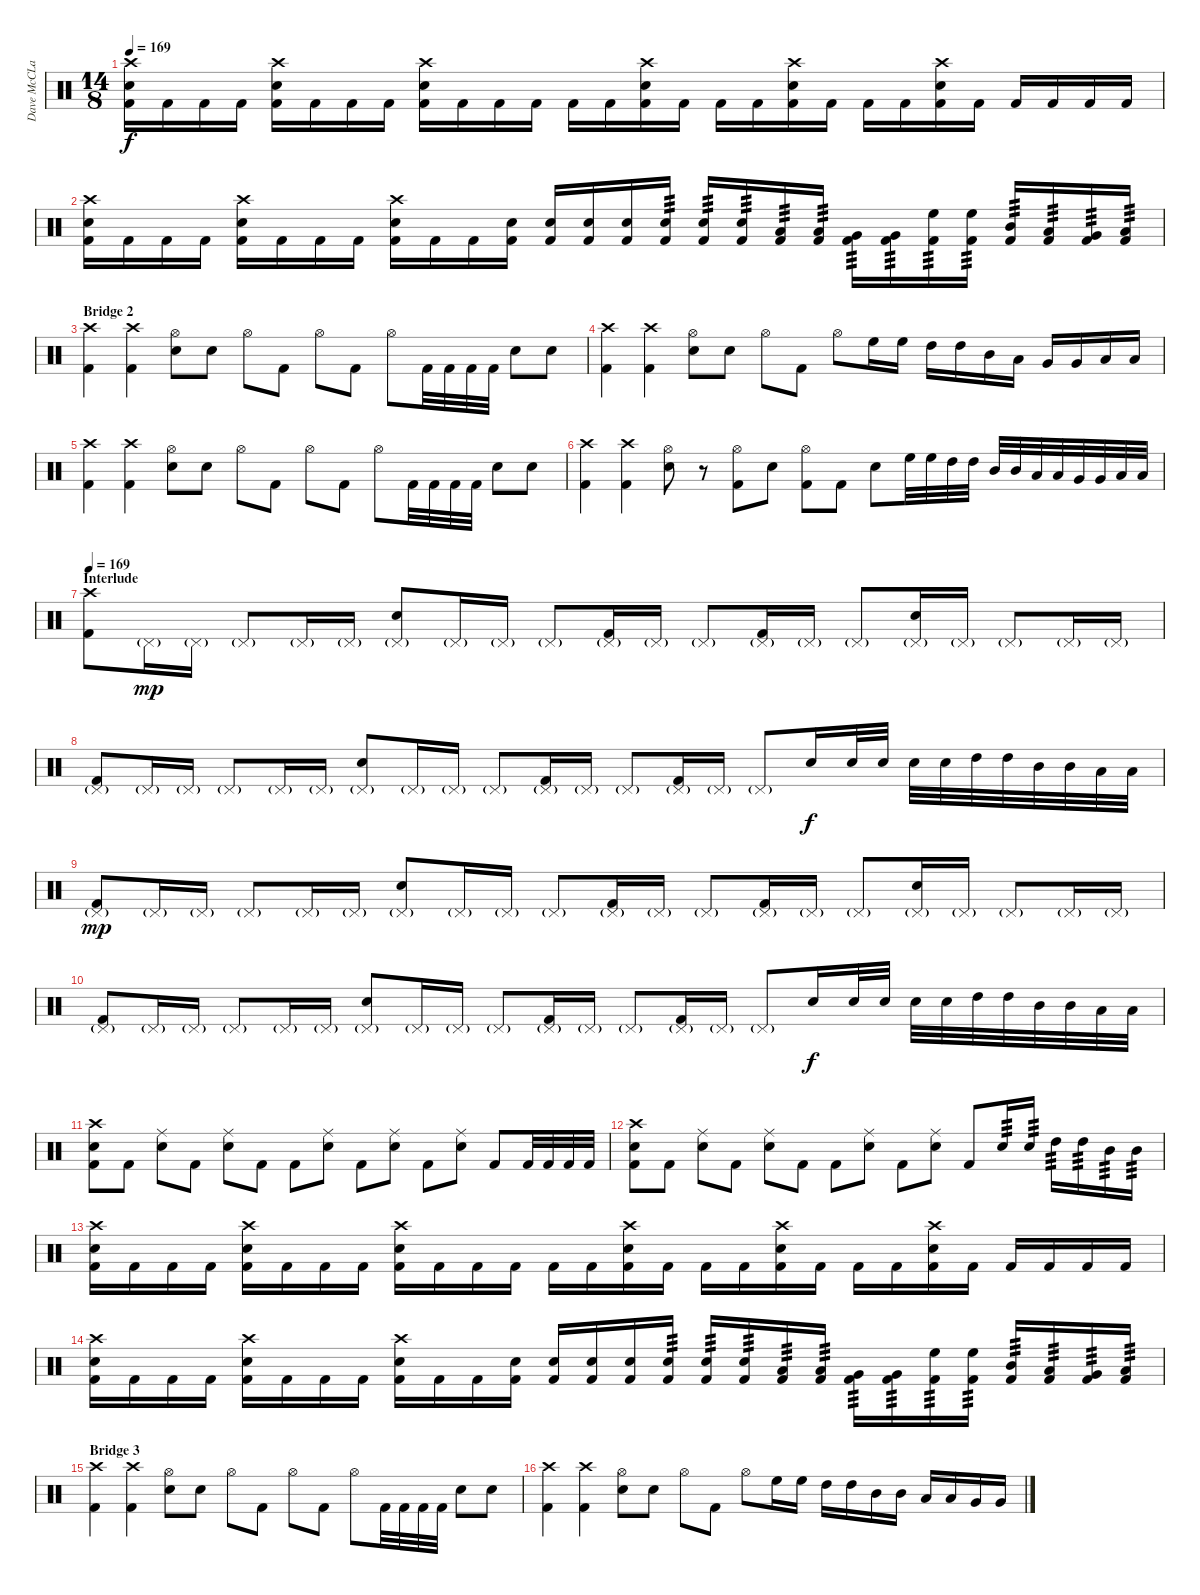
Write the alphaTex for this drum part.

\track ("Dave McCLain" "Dave McCLa") {instrument percussion}
\staff {score}
\articulation defaults
\ts (14 8)
\tempo 169
\clef neutral
\ks c
("Crash high (hit)" "Electric Snare (hit)" "Kick (hit) 2").16{dy f} "Kick (hit) 2".16 "Kick (hit) 2".16 "Kick (hit) 2".16 ("Crash high (hit)" "Electric Snare (hit)" "Kick (hit) 2").16 "Kick (hit) 2".16 "Kick (hit) 2".16 "Kick (hit) 2".16 ("Crash high (hit)" "Electric Snare (hit)" "Kick (hit) 2").16 "Kick (hit) 2".16 "Kick (hit) 2".16 "Kick (hit) 2".16 "Kick (hit) 2".16 "Kick (hit) 2".16 ("Crash high (hit)" "Electric Snare (hit)" "Kick (hit) 2").16 "Kick (hit) 2".16 "Kick (hit) 2".16 "Kick (hit) 2".16 ("Crash high (hit)" "Electric Snare (hit)" "Kick (hit) 2").16 "Kick (hit) 2".16 "Kick (hit) 2".16 "Kick (hit) 2".16 ("Crash high (hit)" "Electric Snare (hit)" "Kick (hit) 2").16 "Kick (hit) 2".16 "Kick (hit) 2".16 "Kick (hit) 2".16 "Kick (hit) 2".16 "Kick (hit) 2".16 |
("Crash high (hit)" "Electric Snare (hit)" "Kick (hit) 2").16 "Kick (hit) 2".16 "Kick (hit) 2".16 "Kick (hit) 2".16 ("Crash high (hit)" "Electric Snare (hit)" "Kick (hit) 2").16 "Kick (hit) 2".16 "Kick (hit) 2".16 "Kick (hit) 2".16 ("Crash high (hit)" "Electric Snare (hit)" "Kick (hit) 2").16 "Kick (hit) 2".16 "Kick (hit) 2".16 ("Electric Snare (hit)" "Kick (hit) 2").16 ("Electric Snare (hit)" "Kick (hit) 2").16 ("Electric Snare (hit)" "Kick (hit) 2").16 ("Electric Snare (hit)" "Kick (hit) 2").16 ("Electric Snare (hit)" "Kick (hit) 2").16{tp 3} ("Electric Snare (hit)" "Kick (hit) 2").16{tp 3} ("Electric Snare (hit)" "Kick (hit) 2").16{tp 3} ("Low Tom (hit)" "Kick (hit) 2").16{tp 3} ("Low Tom (hit)" "Kick (hit) 2").16{tp 3} ("Very Low Tom (hit)" "Kick (hit) 2").16{tp 3} ("Very Low Tom (hit)" "Kick (hit) 2").16{tp 3} ("High Floor Tom (hit)" "Kick (hit) 2").16{tp 3} ("High Floor Tom (hit)" "Kick (hit) 2").16{tp 3} ("Mid Tom (hit)" "Kick (hit) 2").16{tp 3} ("Low Tom (hit)" "Kick (hit) 2").16{tp 3} ("Very Low Tom (hit)" "Kick (hit) 2").16{tp 3} ("Low Floor Tom (hit)" "Kick (hit) 2").16{tp 3} |
\section ("" "Bridge 2")
("Crash high (hit)" "Kick (hit) 2").4 ("Crash high (hit)" "Kick (hit) 2").4 ("Hi-Hat (open)" "Electric Snare (hit)").8 "Electric Snare (hit)".8 "Hi-Hat (open)".8 "Kick (hit) 2".8 "Hi-Hat (open)".8 "Kick (hit) 2".8 "Hi-Hat (open)".8 "Kick (hit) 2".32 "Kick (hit) 2".32 "Kick (hit) 2".32 "Kick (hit) 2".32 "Electric Snare (hit)".8 "Electric Snare (hit)".8 |
("Crash high (hit)" "Kick (hit) 2").4 ("Crash high (hit)" "Kick (hit) 2").4 ("Hi-Hat (open)" "Electric Snare (hit)").8 "Electric Snare (hit)".8 "Hi-Hat (open)".8 "Kick (hit) 2".8 "Hi-Hat (open)".8 "High Floor Tom (hit)".16{balance 11} "High Floor Tom (hit)".16 "High Tom (hit)".16 "High Tom (hit)".16 "Mid Tom (hit)".16{balance 5} "Low Tom (hit)".16 "Very Low Tom (hit)".16 "Very Low Tom (hit)".16 "Low Floor Tom (hit)".16 "Low Floor Tom (hit)".16 |
("Crash high (hit)" "Kick (hit) 2").4{balance 8} ("Crash high (hit)" "Kick (hit) 2").4 ("Hi-Hat (open)" "Electric Snare (hit)").8 "Electric Snare (hit)".8 "Hi-Hat (open)".8 "Kick (hit) 2".8 "Hi-Hat (open)".8 "Kick (hit) 2".8 "Hi-Hat (open)".8 "Kick (hit) 2".32 "Kick (hit) 2".32 "Kick (hit) 2".32 "Kick (hit) 2".32 "Electric Snare (hit)".8 "Electric Snare (hit)".8 |
("Crash high (hit)" "Kick (hit) 2").4 ("Crash high (hit)" "Kick (hit) 2").4 ("Hi-Hat (open)" "Electric Snare (hit)").8 r.8 ("Hi-Hat (open)" "Kick (hit) 2").8 "Electric Snare (hit)".8 ("Hi-Hat (open)" "Kick (hit) 2").8 "Kick (hit) 2".8 "Electric Snare (hit)".8 "High Floor Tom (hit)".32 "High Floor Tom (hit)".32 "High Tom (hit)".32 "High Tom (hit)".32 "Mid Tom (hit)".32 "Mid Tom (hit)".32 "Low Tom (hit)".32 "Low Tom (hit)".32 "Very Low Tom (hit)".32 "Very Low Tom (hit)".32 "Low Floor Tom (hit)".32 "Low Floor Tom (hit)".32 |
\section ("" "Interlude")
\tempo 169
("Crash high (hit)" "Kick (hit) 2").8 "Pedal Hi-Hat (hit)"{g}.16{dy mp} "Pedal Hi-Hat (hit)"{g}.16 "Pedal Hi-Hat (hit)"{g}.8 "Pedal Hi-Hat (hit)"{g}.16 "Pedal Hi-Hat (hit)"{g}.16 ("Pedal Hi-Hat (hit)"{g} "Electric Snare (hit)").8 "Pedal Hi-Hat (hit)"{g}.16 "Pedal Hi-Hat (hit)"{g}.16 "Pedal Hi-Hat (hit)"{g}.8 ("Pedal Hi-Hat (hit)"{g} "Kick (hit) 2").16 "Pedal Hi-Hat (hit)"{g}.16 "Pedal Hi-Hat (hit)"{g}.8 ("Pedal Hi-Hat (hit)"{g} "Kick (hit) 2").16 "Pedal Hi-Hat (hit)"{g}.16 "Pedal Hi-Hat (hit)"{g}.8 ("Pedal Hi-Hat (hit)"{g} "Electric Snare (hit)").16 "Pedal Hi-Hat (hit)"{g}.16 "Pedal Hi-Hat (hit)"{g}.8 "Pedal Hi-Hat (hit)"{g}.16 "Pedal Hi-Hat (hit)"{g}.16 |
("Pedal Hi-Hat (hit)"{g} "Kick (hit) 2").8 "Pedal Hi-Hat (hit)"{g}.16 "Pedal Hi-Hat (hit)"{g}.16 "Pedal Hi-Hat (hit)"{g}.8 "Pedal Hi-Hat (hit)"{g}.16 "Pedal Hi-Hat (hit)"{g}.16 ("Pedal Hi-Hat (hit)"{g} "Electric Snare (hit)").8 "Pedal Hi-Hat (hit)"{g}.16 "Pedal Hi-Hat (hit)"{g}.16 "Pedal Hi-Hat (hit)"{g}.8 ("Pedal Hi-Hat (hit)"{g} "Kick (hit) 2").16 "Pedal Hi-Hat (hit)"{g}.16 "Pedal Hi-Hat (hit)"{g}.8 ("Pedal Hi-Hat (hit)"{g} "Kick (hit) 2").16 "Pedal Hi-Hat (hit)"{g}.16 "Pedal Hi-Hat (hit)"{g}.8 "Electric Snare (hit)".16{dy f} "Electric Snare (hit)".32 "Electric Snare (hit)".32 "Electric Snare (hit)".32 "Electric Snare (hit)".32 "High Tom (hit)".32 "High Tom (hit)".32 "Mid Tom (hit)".32 "Mid Tom (hit)".32 "Low Tom (hit)".32 "Low Tom (hit)".32 |
("Pedal Hi-Hat (hit)"{g} "Kick (hit) 2").8{dy mp} "Pedal Hi-Hat (hit)"{g}.16 "Pedal Hi-Hat (hit)"{g}.16 "Pedal Hi-Hat (hit)"{g}.8 "Pedal Hi-Hat (hit)"{g}.16 "Pedal Hi-Hat (hit)"{g}.16 ("Pedal Hi-Hat (hit)"{g} "Electric Snare (hit)").8 "Pedal Hi-Hat (hit)"{g}.16 "Pedal Hi-Hat (hit)"{g}.16 "Pedal Hi-Hat (hit)"{g}.8 ("Pedal Hi-Hat (hit)"{g} "Kick (hit) 2").16 "Pedal Hi-Hat (hit)"{g}.16 "Pedal Hi-Hat (hit)"{g}.8 ("Pedal Hi-Hat (hit)"{g} "Kick (hit) 2").16 "Pedal Hi-Hat (hit)"{g}.16 "Pedal Hi-Hat (hit)"{g}.8 ("Pedal Hi-Hat (hit)"{g} "Electric Snare (hit)").16 "Pedal Hi-Hat (hit)"{g}.16 "Pedal Hi-Hat (hit)"{g}.8 "Pedal Hi-Hat (hit)"{g}.16 "Pedal Hi-Hat (hit)"{g}.16 |
("Pedal Hi-Hat (hit)"{g} "Kick (hit) 2").8 "Pedal Hi-Hat (hit)"{g}.16 "Pedal Hi-Hat (hit)"{g}.16 "Pedal Hi-Hat (hit)"{g}.8 "Pedal Hi-Hat (hit)"{g}.16 "Pedal Hi-Hat (hit)"{g}.16 ("Pedal Hi-Hat (hit)"{g} "Electric Snare (hit)").8 "Pedal Hi-Hat (hit)"{g}.16 "Pedal Hi-Hat (hit)"{g}.16 "Pedal Hi-Hat (hit)"{g}.8 ("Pedal Hi-Hat (hit)"{g} "Kick (hit) 2").16 "Pedal Hi-Hat (hit)"{g}.16 "Pedal Hi-Hat (hit)"{g}.8 ("Pedal Hi-Hat (hit)"{g} "Kick (hit) 2").16 "Pedal Hi-Hat (hit)"{g}.16 "Pedal Hi-Hat (hit)"{g}.8 "Electric Snare (hit)".16{dy f} "Electric Snare (hit)".32 "Electric Snare (hit)".32 "Electric Snare (hit)".32 "Electric Snare (hit)".32 "High Tom (hit)".32 "High Tom (hit)".32 "Mid Tom (hit)".32 "Mid Tom (hit)".32 "Low Tom (hit)".32 "Low Tom (hit)".32 |
("Crash high (hit)" "Electric Snare (hit)" "Kick (hit) 2").8 "Kick (hit) 2".8 ("Ride (middle)" "Electric Snare (hit)").8 "Kick (hit) 2".8 ("Ride (middle)" "Electric Snare (hit)").8 "Kick (hit) 2".8 "Kick (hit) 2".8 ("Ride (middle)" "Electric Snare (hit)").8 "Kick (hit) 2".8 ("Ride (middle)" "Electric Snare (hit)").8 "Kick (hit) 2".8 ("Ride (middle)" "Electric Snare (hit)").8 "Kick (hit) 2".8 "Kick (hit) 2".32 "Kick (hit) 2".32 "Kick (hit) 2".32 "Kick (hit) 2".32 |
("Crash high (hit)" "Electric Snare (hit)" "Kick (hit) 2").8 "Kick (hit) 2".8 ("Ride (middle)" "Electric Snare (hit)").8 "Kick (hit) 2".8 ("Ride (middle)" "Electric Snare (hit)").8 "Kick (hit) 2".8 "Kick (hit) 2".8 ("Ride (middle)" "Electric Snare (hit)").8 "Kick (hit) 2".8 ("Ride (middle)" "Electric Snare (hit)").8 "Kick (hit) 2".8 "Electric Snare (hit)".16{tp 3} "Electric Snare (hit)".16{tp 3} "High Tom (hit)".16{tp 3} "High Tom (hit)".16{tp 3} "Mid Tom (hit)".16{tp 3} "Mid Tom (hit)".16{tp 3} |
("Crash high (hit)" "Electric Snare (hit)" "Kick (hit) 2").16 "Kick (hit) 2".16 "Kick (hit) 2".16 "Kick (hit) 2".16 ("Crash high (hit)" "Electric Snare (hit)" "Kick (hit) 2").16 "Kick (hit) 2".16 "Kick (hit) 2".16 "Kick (hit) 2".16 ("Crash high (hit)" "Electric Snare (hit)" "Kick (hit) 2").16 "Kick (hit) 2".16 "Kick (hit) 2".16 "Kick (hit) 2".16 "Kick (hit) 2".16 "Kick (hit) 2".16 ("Crash high (hit)" "Electric Snare (hit)" "Kick (hit) 2").16 "Kick (hit) 2".16 "Kick (hit) 2".16 "Kick (hit) 2".16 ("Crash high (hit)" "Electric Snare (hit)" "Kick (hit) 2").16 "Kick (hit) 2".16 "Kick (hit) 2".16 "Kick (hit) 2".16 ("Crash high (hit)" "Electric Snare (hit)" "Kick (hit) 2").16 "Kick (hit) 2".16 "Kick (hit) 2".16 "Kick (hit) 2".16 "Kick (hit) 2".16 "Kick (hit) 2".16 |
("Crash high (hit)" "Electric Snare (hit)" "Kick (hit) 2").16 "Kick (hit) 2".16 "Kick (hit) 2".16 "Kick (hit) 2".16 ("Crash high (hit)" "Electric Snare (hit)" "Kick (hit) 2").16 "Kick (hit) 2".16 "Kick (hit) 2".16 "Kick (hit) 2".16 ("Crash high (hit)" "Electric Snare (hit)" "Kick (hit) 2").16 "Kick (hit) 2".16 "Kick (hit) 2".16 ("Electric Snare (hit)" "Kick (hit) 2").16 ("Electric Snare (hit)" "Kick (hit) 2").16 ("Electric Snare (hit)" "Kick (hit) 2").16 ("Electric Snare (hit)" "Kick (hit) 2").16 ("Electric Snare (hit)" "Kick (hit) 2").16{tp 3} ("Electric Snare (hit)" "Kick (hit) 2").16{tp 3} ("Electric Snare (hit)" "Kick (hit) 2").16{tp 3} ("Low Tom (hit)" "Kick (hit) 2").16{tp 3} ("Low Tom (hit)" "Kick (hit) 2").16{tp 3} ("Very Low Tom (hit)" "Kick (hit) 2").16{tp 3} ("Very Low Tom (hit)" "Kick (hit) 2").16{tp 3} ("High Floor Tom (hit)" "Kick (hit) 2").16{tp 3} ("High Floor Tom (hit)" "Kick (hit) 2").16{tp 3} ("Mid Tom (hit)" "Kick (hit) 2").16{tp 3} ("Low Tom (hit)" "Kick (hit) 2").16{tp 3} ("Very Low Tom (hit)" "Kick (hit) 2").16{tp 3} ("Low Floor Tom (hit)" "Kick (hit) 2").16{tp 3} |
\section ("" "Bridge 3")
("Crash high (hit)" "Kick (hit) 2").4 ("Crash high (hit)" "Kick (hit) 2").4 ("Hi-Hat (open)" "Electric Snare (hit)").8 "Electric Snare (hit)".8 "Hi-Hat (open)".8 "Kick (hit) 2".8 "Hi-Hat (open)".8 "Kick (hit) 2".8 "Hi-Hat (open)".8 "Kick (hit) 2".32 "Kick (hit) 2".32 "Kick (hit) 2".32 "Kick (hit) 2".32 "Electric Snare (hit)".8 "Electric Snare (hit)".8 |
("Crash high (hit)" "Kick (hit) 2").4 ("Crash high (hit)" "Kick (hit) 2").4 ("Hi-Hat (open)" "Electric Snare (hit)").8 "Electric Snare (hit)".8 "Hi-Hat (open)".8 "Kick (hit) 2".8 "Hi-Hat (open)".8 "High Floor Tom (hit)".16 "High Floor Tom (hit)".16 "High Tom (hit)".16 "High Tom (hit)".16 "Mid Tom (hit)".16 "Mid Tom (hit)".16 "Low Tom (hit)".16 "Low Tom (hit)".16 "Very Low Tom (hit)".16 "Very Low Tom (hit)".16
